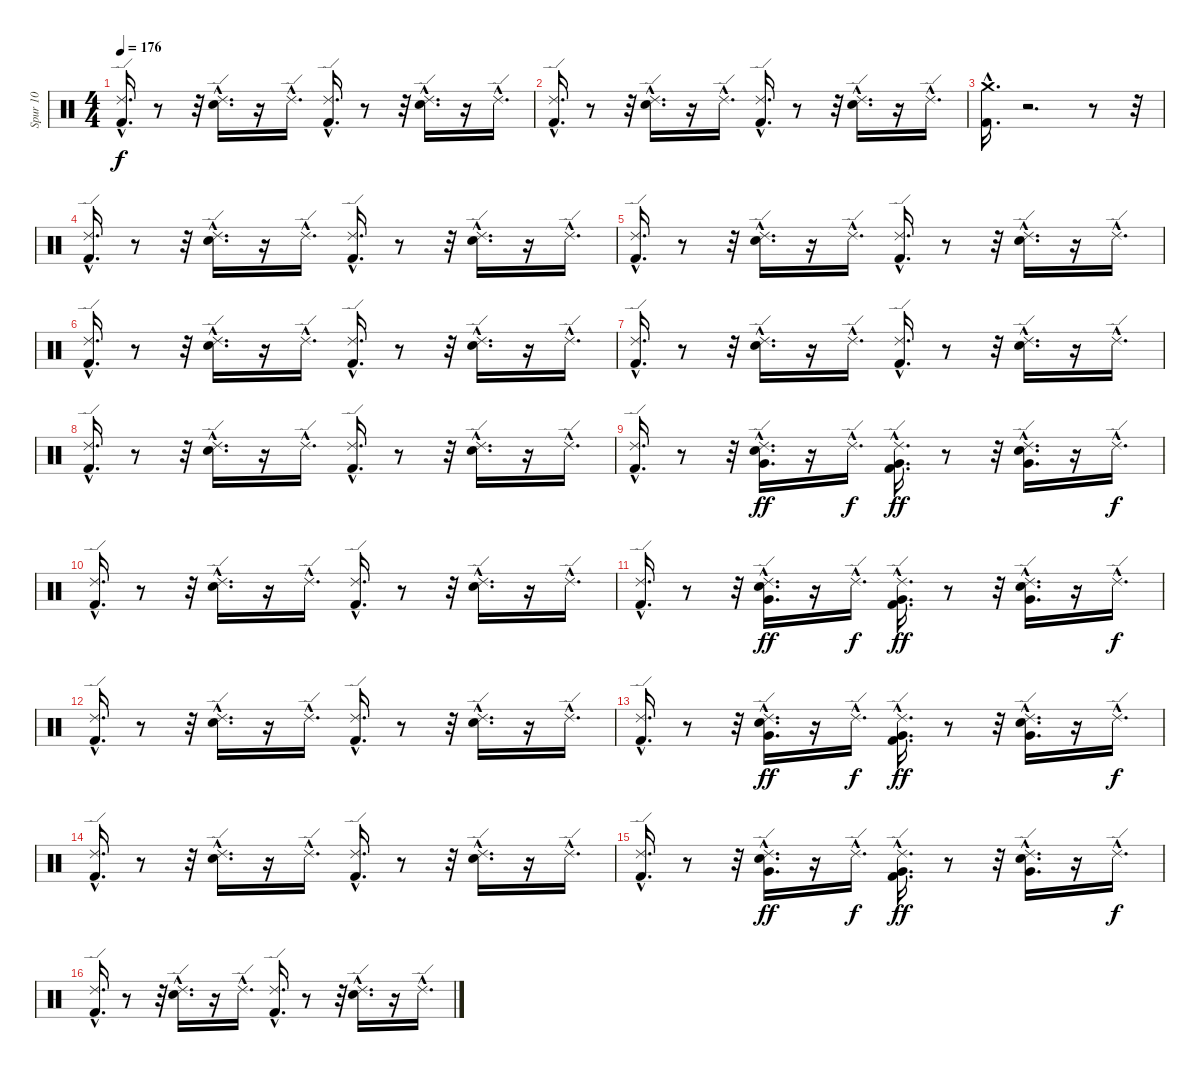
\track ("Spur 10" "Spur 10") {instrument percussion}
\staff {score}
\articulation defaults
\ts (4 4)
\tempo 176
\clef neutral
\ks c
("Ride (edge) 2"{hac} "Kick (hit) 2"{hac}).16{d dy f} r.8 r.32 ("Ride (edge) 2"{hac} "Snare (hit) 2"{hac}).16{d} r.16 "Ride (edge) 2"{hac}.16{d} ("Ride (edge) 2"{hac} "Kick (hit) 2"{hac}).16{d} r.8 r.32 ("Ride (edge) 2"{hac} "Snare (hit) 2"{hac}).16{d} r.16 "Ride (edge) 2"{hac}.16{d} |
("Ride (edge) 2"{hac} "Kick (hit) 2"{hac}).16{d} r.8 r.32 ("Ride (edge) 2"{hac} "Snare (hit) 2"{hac}).16{d} r.16 "Ride (edge) 2"{hac}.16{d} ("Ride (edge) 2"{hac} "Kick (hit) 2"{hac}).16{d} r.8 r.32 ("Ride (edge) 2"{hac} "Snare (hit) 2"{hac}).16{d} r.16 "Ride (edge) 2"{hac}.16{d} |
("Crash medium (hit)"{hac} "Kick (hit) 2"{hac}).16{d} r.2{d} r.8 r.32 |
("Ride (edge) 2"{hac} "Kick (hit) 2"{hac}).16{d} r.8 r.32 ("Ride (edge) 2"{hac} "Snare (hit) 2"{hac}).16{d} r.16 "Ride (edge) 2"{hac}.16{d} ("Ride (edge) 2"{hac} "Kick (hit) 2"{hac}).16{d} r.8 r.32 ("Ride (edge) 2"{hac} "Snare (hit) 2"{hac}).16{d} r.16 "Ride (edge) 2"{hac}.16{d} |
("Ride (edge) 2"{hac} "Kick (hit) 2"{hac}).16{d} r.8 r.32 ("Ride (edge) 2"{hac} "Snare (hit) 2"{hac}).16{d} r.16 "Ride (edge) 2"{hac}.16{d} ("Ride (edge) 2"{hac} "Kick (hit) 2"{hac}).16{d} r.8 r.32 ("Ride (edge) 2"{hac} "Snare (hit) 2"{hac}).16{d} r.16 "Ride (edge) 2"{hac}.16{d} |
("Ride (edge) 2"{hac} "Kick (hit) 2"{hac}).16{d} r.8 r.32 ("Ride (edge) 2"{hac} "Snare (hit) 2"{hac}).16{d} r.16 "Ride (edge) 2"{hac}.16{d} ("Ride (edge) 2"{hac} "Kick (hit) 2"{hac}).16{d} r.8 r.32 ("Ride (edge) 2"{hac} "Snare (hit) 2"{hac}).16{d} r.16 "Ride (edge) 2"{hac}.16{d} |
("Ride (edge) 2"{hac} "Kick (hit) 2"{hac}).16{d} r.8 r.32 ("Ride (edge) 2"{hac} "Snare (hit) 2"{hac}).16{d} r.16 "Ride (edge) 2"{hac}.16{d} ("Ride (edge) 2"{hac} "Kick (hit) 2"{hac}).16{d} r.8 r.32 ("Ride (edge) 2"{hac} "Snare (hit) 2"{hac}).16{d} r.16 "Ride (edge) 2"{hac}.16{d} |
("Kick (hit) 2"{hac} "Ride (edge) 2"{hac}).16{d} r.8 r.32 ("Snare (hit) 2"{hac} "Ride (edge) 2"{hac}).16{d} r.16 "Ride (edge) 2"{hac}.16{d} ("Kick (hit) 2"{hac} "Ride (edge) 2"{hac}).16{d} r.8 r.32 ("Snare (hit) 2"{hac} "Ride (edge) 2"{hac}).16{d} r.16 "Ride (edge) 2"{hac}.16{d} |
("Kick (hit) 2"{hac} "Ride (edge) 2"{hac}).16{d} r.8 r.32 ("Very Low Tom (hit)"{hac} "Snare (hit) 2"{hac} "Ride (edge) 2"{hac}).16{d dy ff} r.16 "Ride (edge) 2"{hac}.16{d dy f} ("Very Low Tom (hit)"{hac} "Kick (hit) 2"{hac} "Ride (edge) 2"{hac}).16{d dy ff} r.8 r.32 ("Very Low Tom (hit)"{hac} "Snare (hit) 2"{hac} "Ride (edge) 2"{hac}).16{d} r.16 "Ride (edge) 2"{hac}.16{d dy f} |
("Kick (hit) 2"{hac} "Ride (edge) 2"{hac}).16{d} r.8 r.32 ("Snare (hit) 2"{hac} "Ride (edge) 2"{hac}).16{d} r.16 "Ride (edge) 2"{hac}.16{d} ("Kick (hit) 2"{hac} "Ride (edge) 2"{hac}).16{d} r.8 r.32 ("Snare (hit) 2"{hac} "Ride (edge) 2"{hac}).16{d} r.16 "Ride (edge) 2"{hac}.16{d} |
("Kick (hit) 2"{hac} "Ride (edge) 2"{hac}).16{d} r.8 r.32 ("Very Low Tom (hit)"{hac} "Snare (hit) 2"{hac} "Ride (edge) 2"{hac}).16{d dy ff} r.16 "Ride (edge) 2"{hac}.16{d dy f} ("Very Low Tom (hit)"{hac} "Kick (hit) 2"{hac} "Ride (edge) 2"{hac}).16{d dy ff} r.8 r.32 ("Very Low Tom (hit)"{hac} "Snare (hit) 2"{hac} "Ride (edge) 2"{hac}).16{d} r.16 "Ride (edge) 2"{hac}.16{d dy f} |
("Kick (hit) 2"{hac} "Ride (edge) 2"{hac}).16{d} r.8 r.32 ("Snare (hit) 2"{hac} "Ride (edge) 2"{hac}).16{d} r.16 "Ride (edge) 2"{hac}.16{d} ("Kick (hit) 2"{hac} "Ride (edge) 2"{hac}).16{d} r.8 r.32 ("Snare (hit) 2"{hac} "Ride (edge) 2"{hac}).16{d} r.16 "Ride (edge) 2"{hac}.16{d} |
("Kick (hit) 2"{hac} "Ride (edge) 2"{hac}).16{d} r.8 r.32 ("Very Low Tom (hit)"{hac} "Snare (hit) 2"{hac} "Ride (edge) 2"{hac}).16{d dy ff} r.16 "Ride (edge) 2"{hac}.16{d dy f} ("Very Low Tom (hit)"{hac} "Kick (hit) 2"{hac} "Ride (edge) 2"{hac}).16{d dy ff} r.8 r.32 ("Very Low Tom (hit)"{hac} "Snare (hit) 2"{hac} "Ride (edge) 2"{hac}).16{d} r.16 "Ride (edge) 2"{hac}.16{d dy f} |
("Kick (hit) 2"{hac} "Ride (edge) 2"{hac}).16{d} r.8 r.32 ("Snare (hit) 2"{hac} "Ride (edge) 2"{hac}).16{d} r.16 "Ride (edge) 2"{hac}.16{d} ("Kick (hit) 2"{hac} "Ride (edge) 2"{hac}).16{d} r.8 r.32 ("Snare (hit) 2"{hac} "Ride (edge) 2"{hac}).16{d} r.16 "Ride (edge) 2"{hac}.16{d} |
("Kick (hit) 2"{hac} "Ride (edge) 2"{hac}).16{d} r.8 r.32 ("Very Low Tom (hit)"{hac} "Snare (hit) 2"{hac} "Ride (edge) 2"{hac}).16{d dy ff} r.16 "Ride (edge) 2"{hac}.16{d dy f} ("Very Low Tom (hit)"{hac} "Kick (hit) 2"{hac} "Ride (edge) 2"{hac}).16{d dy ff} r.8 r.32 ("Very Low Tom (hit)"{hac} "Snare (hit) 2"{hac} "Ride (edge) 2"{hac}).16{d} r.16 "Ride (edge) 2"{hac}.16{d dy f} |
("Kick (hit) 2"{hac} "Ride (edge) 2"{hac}).16{d} r.8 r.32 ("Snare (hit) 2"{hac} "Ride (edge) 2"{hac}).16{d} r.16 "Ride (edge) 2"{hac}.16{d} ("Kick (hit) 2"{hac} "Ride (edge) 2"{hac}).16{d} r.8 r.32 ("Snare (hit) 2"{hac} "Ride (edge) 2"{hac}).16{d} r.16 "Ride (edge) 2"{hac}.16{d}
